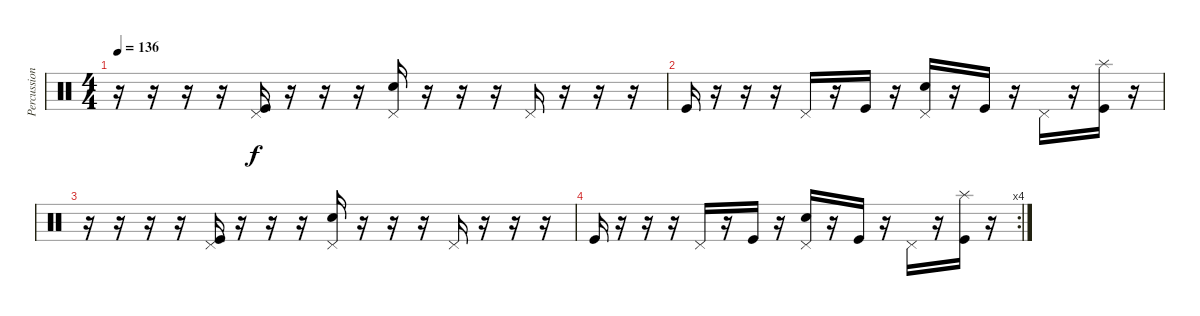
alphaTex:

\track ("Percussion" "Percussion") {instrument percussion}
\staff {score}
\articulation defaults
\ts (4 4)
\tempo 136
\clef neutral
\ks c
r.16{dy f} r.16 r.16 r.16 ("Pedal Hi-Hat (hit)" "Kick (hit)").16 r.16 r.16 r.16 ("Pedal Hi-Hat (hit)" "Snare (hit) 2").16 r.16 r.16 r.16 "Pedal Hi-Hat (hit)".16 r.16 r.16 r.16 |
"Kick (hit)".16 r.16 r.16 r.16 "Pedal Hi-Hat (hit)".16 r.16 "Kick (hit)".16 r.16 ("Pedal Hi-Hat (hit)" "Snare (hit) 2").16 r.16 "Kick (hit)".16 r.16 "Pedal Hi-Hat (hit)".16 r.16 ("Splash (hit)" "Kick (hit)").16 r.16 |
r.16 r.16 r.16 r.16 ("Pedal Hi-Hat (hit)" "Kick (hit)").16 r.16 r.16 r.16 ("Pedal Hi-Hat (hit)" "Snare (hit) 2").16 r.16 r.16 r.16 "Pedal Hi-Hat (hit)".16 r.16 r.16 r.16 |
\rc 4 "Kick (hit)".16
r.16 r.16 r.16 "Pedal Hi-Hat (hit)".16 r.16 "Kick (hit)".16 r.16 ("Pedal Hi-Hat (hit)" "Snare (hit) 2").16 r.16 "Kick (hit)".16 r.16 "Pedal Hi-Hat (hit)".16 r.16 ("Splash (hit)" "Kick (hit)").16 r.16
